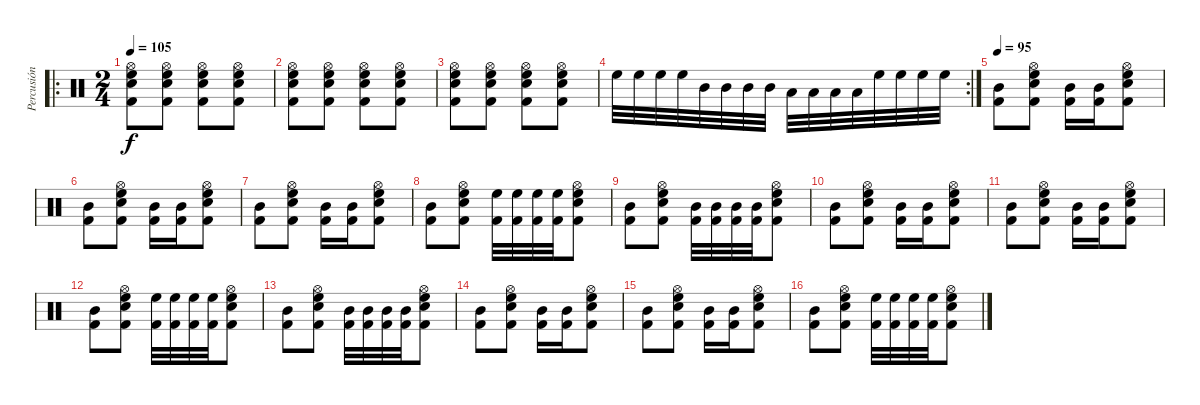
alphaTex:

\track ("Percusión" "Percusión") {instrument percussion}
\staff {score}
\articulation defaults
\ro
\ts (2 4)
\tempo 105
\clef neutral
\ks c
("Hi-Hat (open)" "High Floor Tom (hit)" "Snare (hit) 2" "Kick (hit) 2").8{dy f} ("Hi-Hat (open)" "High Floor Tom (hit)" "Snare (hit) 2" "Kick (hit) 2").8 ("Hi-Hat (open)" "High Floor Tom (hit)" "Snare (hit) 2" "Kick (hit) 2").8 ("Hi-Hat (open)" "High Floor Tom (hit)" "Snare (hit) 2" "Kick (hit) 2").8 |
("Hi-Hat (open)" "High Floor Tom (hit)" "Snare (hit) 2" "Kick (hit) 2").8 ("Hi-Hat (open)" "High Floor Tom (hit)" "Snare (hit) 2" "Kick (hit) 2").8 ("Hi-Hat (open)" "High Floor Tom (hit)" "Snare (hit) 2" "Kick (hit) 2").8 ("Hi-Hat (open)" "High Floor Tom (hit)" "Snare (hit) 2" "Kick (hit) 2").8 |
("Hi-Hat (open)" "High Floor Tom (hit)" "Snare (hit) 2" "Kick (hit) 2").8 ("Hi-Hat (open)" "High Floor Tom (hit)" "Snare (hit) 2" "Kick (hit) 2").8 ("Hi-Hat (open)" "High Floor Tom (hit)" "Snare (hit) 2" "Kick (hit) 2").8 ("Hi-Hat (open)" "High Floor Tom (hit)" "Snare (hit) 2" "Kick (hit) 2").8 |
\rc 2 "High Floor Tom (hit)".32 "High Floor Tom (hit)".32 "High Floor Tom (hit)".32 "High Floor Tom (hit)".32 "Mid Tom (hit)".32 "Mid Tom (hit)".32 "Mid Tom (hit)".32 "Mid Tom (hit)".32 "Low Tom (hit)".32 "Low Tom (hit)".32 "Low Tom (hit)".32 "Low Tom (hit)".32 "High Floor Tom (hit)".32 "High Floor Tom (hit)".32 "High Floor Tom (hit)".32 "High Floor Tom (hit)".32
|
\tempo 95
("Mid Tom (hit)" "Kick (hit) 2").8 ("Hi-Hat (open)" "High Floor Tom (hit)" "Snare (hit) 2" "Kick (hit) 2").8 ("Mid Tom (hit)" "Kick (hit) 2").16 ("Mid Tom (hit)" "Kick (hit) 2").16 ("Hi-Hat (open)" "High Floor Tom (hit)" "Snare (hit) 2" "Kick (hit) 2").8 |
("Mid Tom (hit)" "Kick (hit) 2").8 ("Hi-Hat (open)" "High Floor Tom (hit)" "Snare (hit) 2" "Kick (hit) 2").8 ("Mid Tom (hit)" "Kick (hit) 2").16 ("Mid Tom (hit)" "Kick (hit) 2").16 ("Hi-Hat (open)" "High Floor Tom (hit)" "Snare (hit) 2" "Kick (hit) 2").8 |
("Mid Tom (hit)" "Kick (hit) 2").8 ("Hi-Hat (open)" "High Floor Tom (hit)" "Snare (hit) 2" "Kick (hit) 2").8 ("Mid Tom (hit)" "Kick (hit) 2").16 ("Mid Tom (hit)" "Kick (hit) 2").16 ("Hi-Hat (open)" "High Floor Tom (hit)" "Snare (hit) 2" "Kick (hit) 2").8 |
("Mid Tom (hit)" "Kick (hit) 2").8 ("Hi-Hat (open)" "High Floor Tom (hit)" "Snare (hit) 2" "Kick (hit) 2").8 ("High Floor Tom (hit)" "Kick (hit) 2").32 ("High Floor Tom (hit)" "Kick (hit) 2").32 ("High Floor Tom (hit)" "Kick (hit) 2").32 ("High Floor Tom (hit)" "Kick (hit) 2").32 ("Hi-Hat (open)" "High Floor Tom (hit)" "Snare (hit) 2" "Kick (hit) 2").8 |
("Mid Tom (hit)" "Kick (hit) 2").8 ("Hi-Hat (open)" "High Floor Tom (hit)" "Snare (hit) 2" "Kick (hit) 2").8 ("Mid Tom (hit)" "Kick (hit) 2").32 ("Mid Tom (hit)" "Kick (hit) 2").32 ("Mid Tom (hit)" "Kick (hit) 2").32 ("Mid Tom (hit)" "Kick (hit) 2").32 ("Hi-Hat (open)" "High Floor Tom (hit)" "Snare (hit) 2" "Kick (hit) 2").8 |
("Mid Tom (hit)" "Kick (hit) 2").8 ("Hi-Hat (open)" "High Floor Tom (hit)" "Snare (hit) 2" "Kick (hit) 2").8 ("Mid Tom (hit)" "Kick (hit) 2").16 ("Mid Tom (hit)" "Kick (hit) 2").16 ("Hi-Hat (open)" "High Floor Tom (hit)" "Snare (hit) 2" "Kick (hit) 2").8 |
("Mid Tom (hit)" "Kick (hit) 2").8 ("Hi-Hat (open)" "High Floor Tom (hit)" "Snare (hit) 2" "Kick (hit) 2").8 ("Mid Tom (hit)" "Kick (hit) 2").16 ("Mid Tom (hit)" "Kick (hit) 2").16 ("Hi-Hat (open)" "High Floor Tom (hit)" "Snare (hit) 2" "Kick (hit) 2").8 |
("Mid Tom (hit)" "Kick (hit) 2").8 ("Hi-Hat (open)" "High Floor Tom (hit)" "Snare (hit) 2" "Kick (hit) 2").8 ("High Floor Tom (hit)" "Kick (hit) 2").32 ("High Floor Tom (hit)" "Kick (hit) 2").32 ("High Floor Tom (hit)" "Kick (hit) 2").32 ("High Floor Tom (hit)" "Kick (hit) 2").32 ("Hi-Hat (open)" "High Floor Tom (hit)" "Snare (hit) 2" "Kick (hit) 2").8 |
("Mid Tom (hit)" "Kick (hit) 2").8 ("Hi-Hat (open)" "High Floor Tom (hit)" "Snare (hit) 2" "Kick (hit) 2").8 ("Mid Tom (hit)" "Kick (hit) 2").32 ("Mid Tom (hit)" "Kick (hit) 2").32 ("Mid Tom (hit)" "Kick (hit) 2").32 ("Mid Tom (hit)" "Kick (hit) 2").32 ("Hi-Hat (open)" "High Floor Tom (hit)" "Snare (hit) 2" "Kick (hit) 2").8 |
("Mid Tom (hit)" "Kick (hit) 2").8 ("Hi-Hat (open)" "High Floor Tom (hit)" "Snare (hit) 2" "Kick (hit) 2").8 ("Mid Tom (hit)" "Kick (hit) 2").16 ("Mid Tom (hit)" "Kick (hit) 2").16 ("Hi-Hat (open)" "High Floor Tom (hit)" "Snare (hit) 2" "Kick (hit) 2").8 |
("Mid Tom (hit)" "Kick (hit) 2").8 ("Hi-Hat (open)" "High Floor Tom (hit)" "Snare (hit) 2" "Kick (hit) 2").8 ("Mid Tom (hit)" "Kick (hit) 2").16 ("Mid Tom (hit)" "Kick (hit) 2").16 ("Hi-Hat (open)" "High Floor Tom (hit)" "Snare (hit) 2" "Kick (hit) 2").8 |
("Mid Tom (hit)" "Kick (hit) 2").8 ("Hi-Hat (open)" "High Floor Tom (hit)" "Snare (hit) 2" "Kick (hit) 2").8 ("High Floor Tom (hit)" "Kick (hit) 2").32 ("High Floor Tom (hit)" "Kick (hit) 2").32 ("High Floor Tom (hit)" "Kick (hit) 2").32 ("High Floor Tom (hit)" "Kick (hit) 2").32 ("Hi-Hat (open)" "High Floor Tom (hit)" "Snare (hit) 2" "Kick (hit) 2").8
